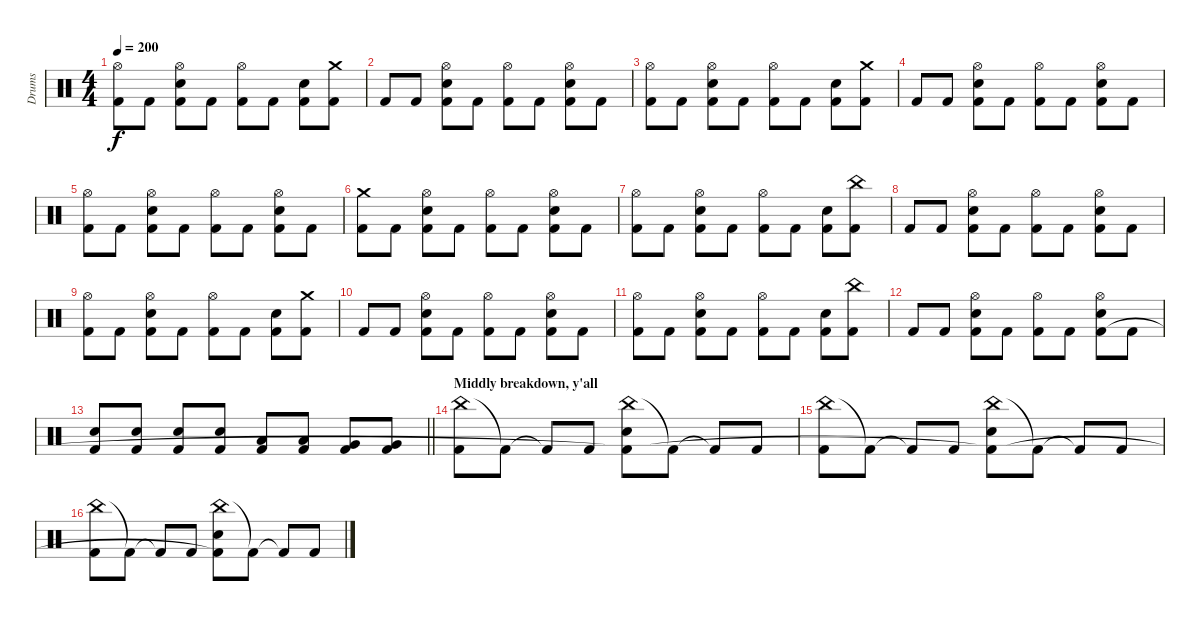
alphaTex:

\track ("Drums" "Drums") {instrument percussion}
\staff {score}
\articulation defaults
\ts (4 4)
\tempo 200
\clef neutral
\ks c
("Hi-Hat (open)" "Kick (hit) 2").8{dy f} "Kick (hit) 2".8 ("Hi-Hat (open)" "Snare (hit) 2" "Kick (hit) 2").8 "Kick (hit) 2".8 ("Hi-Hat (open)" "Kick (hit) 2").8 "Kick (hit) 2".8 ("Snare (hit) 2" "Kick (hit) 2").8 ("Crash medium (hit)" "Kick (hit) 2").8 |
"Kick (hit) 2".8 "Kick (hit) 2".8 ("Hi-Hat (open)" "Snare (hit) 2" "Kick (hit) 2").8 "Kick (hit) 2".8 ("Hi-Hat (open)" "Kick (hit) 2").8 "Kick (hit) 2".8 ("Hi-Hat (open)" "Snare (hit) 2" "Kick (hit) 2").8 "Kick (hit) 2".8 |
("Hi-Hat (open)" "Kick (hit) 2").8 "Kick (hit) 2".8 ("Hi-Hat (open)" "Snare (hit) 2" "Kick (hit) 2").8 "Kick (hit) 2".8 ("Hi-Hat (open)" "Kick (hit) 2").8 "Kick (hit) 2".8 ("Snare (hit) 2" "Kick (hit) 2").8 ("Crash medium (hit)" "Kick (hit) 2").8 |
"Kick (hit) 2".8 "Kick (hit) 2".8 ("Hi-Hat (open)" "Snare (hit) 2" "Kick (hit) 2").8 "Kick (hit) 2".8 ("Hi-Hat (open)" "Kick (hit) 2").8 "Kick (hit) 2".8 ("Hi-Hat (open)" "Snare (hit) 2" "Kick (hit) 2").8 "Kick (hit) 2".8 |
("Hi-Hat (open)" "Kick (hit) 2").8 "Kick (hit) 2".8 ("Hi-Hat (open)" "Snare (hit) 2" "Kick (hit) 2").8 "Kick (hit) 2".8 ("Hi-Hat (open)" "Kick (hit) 2").8 "Kick (hit) 2".8 ("Hi-Hat (open)" "Snare (hit) 2" "Kick (hit) 2").8 "Kick (hit) 2".8 |
("Crash medium (hit)" "Kick (hit) 2").8 "Kick (hit) 2".8 ("Hi-Hat (open)" "Snare (hit) 2" "Kick (hit) 2").8 "Kick (hit) 2".8 ("Hi-Hat (open)" "Kick (hit) 2").8 "Kick (hit) 2".8 ("Hi-Hat (open)" "Snare (hit) 2" "Kick (hit) 2").8 "Kick (hit) 2".8 |
("Hi-Hat (open)" "Kick (hit) 2").8 "Kick (hit) 2".8 ("Hi-Hat (open)" "Snare (hit) 2" "Kick (hit) 2").8 "Kick (hit) 2".8 ("Hi-Hat (open)" "Kick (hit) 2").8 "Kick (hit) 2".8 ("Snare (hit) 2" "Kick (hit) 2").8 ("China (hit)" "Kick (hit) 2").8 |
"Kick (hit) 2".8 "Kick (hit) 2".8 ("Hi-Hat (open)" "Snare (hit) 2" "Kick (hit) 2").8 "Kick (hit) 2".8 ("Hi-Hat (open)" "Kick (hit) 2").8 "Kick (hit) 2".8 ("Hi-Hat (open)" "Snare (hit) 2" "Kick (hit) 2").8 "Kick (hit) 2".8 |
("Hi-Hat (open)" "Kick (hit) 2").8 "Kick (hit) 2".8 ("Hi-Hat (open)" "Snare (hit) 2" "Kick (hit) 2").8 "Kick (hit) 2".8 ("Hi-Hat (open)" "Kick (hit) 2").8 "Kick (hit) 2".8 ("Snare (hit) 2" "Kick (hit) 2").8 ("Crash medium (hit)" "Kick (hit) 2").8 |
"Kick (hit) 2".8 "Kick (hit) 2".8 ("Hi-Hat (open)" "Snare (hit) 2" "Kick (hit) 2").8 "Kick (hit) 2".8 ("Hi-Hat (open)" "Kick (hit) 2").8 "Kick (hit) 2".8 ("Hi-Hat (open)" "Snare (hit) 2" "Kick (hit) 2").8 "Kick (hit) 2".8 |
("Hi-Hat (open)" "Kick (hit) 2").8 "Kick (hit) 2".8 ("Hi-Hat (open)" "Snare (hit) 2" "Kick (hit) 2").8 "Kick (hit) 2".8 ("Hi-Hat (open)" "Kick (hit) 2").8 "Kick (hit) 2".8 ("Snare (hit) 2" "Kick (hit) 2").8 ("China (hit)" "Kick (hit) 2").8 |
"Kick (hit) 2".8 "Kick (hit) 2".8 ("Hi-Hat (open)" "Snare (hit) 2" "Kick (hit) 2").8 "Kick (hit) 2".8 ("Hi-Hat (open)" "Kick (hit) 2").8 "Kick (hit) 2".8 ("Hi-Hat (open)" "Snare (hit) 2" "Kick (hit) 2").8 "Kick (hit) 2".8 |
\barLineRight lightlight
("Snare (hit) 2" "Kick (hit) 2").8 ("Snare (hit) 2" "Kick (hit) 2").8 ("Snare (hit) 2" "Kick (hit) 2").8 ("Snare (hit) 2" "Kick (hit) 2").8 ("Low Tom (hit)" "Kick (hit) 2").8 ("Low Tom (hit)" "Kick (hit) 2").8 ("Very Low Tom (hit)" "Kick (hit) 2").8 ("Very Low Tom (hit)" "Kick (hit) 2").8 |
\section ("" "Middly breakdown, y'all")
("China (hit)" "Kick (hit) 2").8 "Kick (hit) 2"{t}.8 "Kick (hit) 2"{t}.8 "Kick (hit) 2".8 ("China (hit)" "Snare (hit) 2" "Kick (hit) 2"{t}).8 "Kick (hit) 2"{t}.8 "Kick (hit) 2"{t}.8 "Kick (hit) 2".8 |
("China (hit)" "Kick (hit) 2").8 "Kick (hit) 2"{t}.8 "Kick (hit) 2"{t}.8 "Kick (hit) 2".8 ("China (hit)" "Snare (hit) 2" "Kick (hit) 2"{t}).8 "Kick (hit) 2"{t}.8 "Kick (hit) 2"{t}.8 "Kick (hit) 2".8 |
("China (hit)" "Kick (hit) 2").8 "Kick (hit) 2"{t}.8 "Kick (hit) 2"{t}.8 "Kick (hit) 2".8 ("China (hit)" "Snare (hit) 2" "Kick (hit) 2"{t}).8 "Kick (hit) 2"{t}.8 "Kick (hit) 2"{t}.8 "Kick (hit) 2".8
